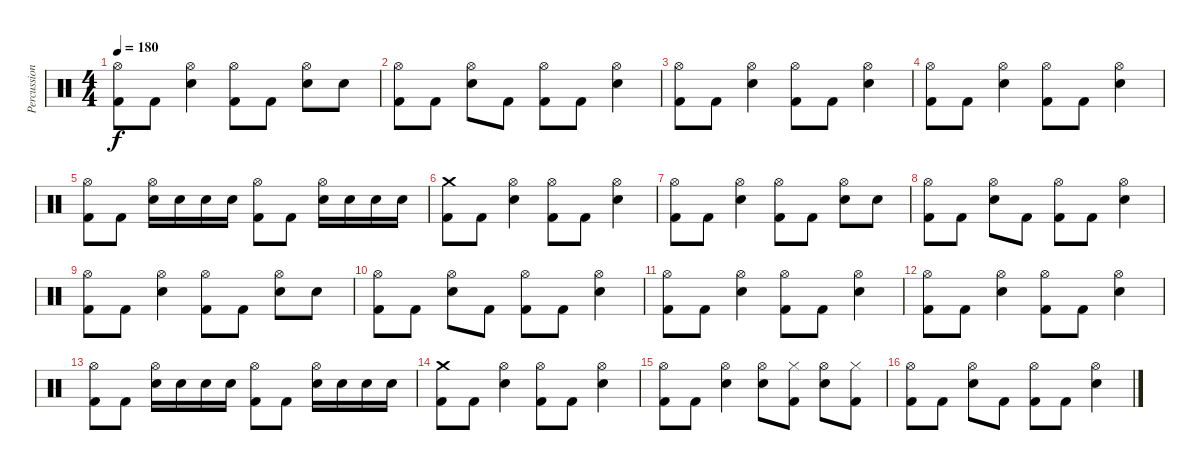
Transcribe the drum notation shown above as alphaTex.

\track ("Percussions" "Percussion") {instrument percussion}
\staff {score}
\articulation defaults
\ts (4 4)
\tempo 180
\clef neutral
\ks c
("Hi-Hat (open)" "Kick (hit) 2").8{dy f} "Kick (hit) 2".8 ("Electric Snare (hit)" "Hi-Hat (open)").4 ("Hi-Hat (open)" "Kick (hit) 2").8 "Kick (hit) 2".8 ("Electric Snare (hit)" "Hi-Hat (open)").8 "Electric Snare (hit)".8 |
("Hi-Hat (open)" "Kick (hit) 2").8 "Kick (hit) 2".8 ("Electric Snare (hit)" "Hi-Hat (open)").8 "Kick (hit) 2".8 ("Hi-Hat (open)" "Kick (hit) 2").8 "Kick (hit) 2".8 ("Electric Snare (hit)" "Hi-Hat (open)").4 |
("Hi-Hat (open)" "Kick (hit) 2").8 "Kick (hit) 2".8 ("Electric Snare (hit)" "Hi-Hat (open)").4 ("Hi-Hat (open)" "Kick (hit) 2").8 "Kick (hit) 2".8 ("Electric Snare (hit)" "Hi-Hat (open)").4 |
("Hi-Hat (open)" "Kick (hit) 2").8 "Kick (hit) 2".8 ("Electric Snare (hit)" "Hi-Hat (open)").4 ("Hi-Hat (open)" "Kick (hit) 2").8 "Kick (hit) 2".8 ("Electric Snare (hit)" "Hi-Hat (open)").4 |
("Hi-Hat (open)" "Kick (hit) 2").8 "Kick (hit) 2".8 ("Electric Snare (hit)" "Hi-Hat (open)").16 "Electric Snare (hit)".16 "Electric Snare (hit)".16 "Electric Snare (hit)".16 ("Hi-Hat (open)" "Kick (hit) 2").8 "Kick (hit) 2".8 ("Electric Snare (hit)" "Hi-Hat (open)").16 "Electric Snare (hit)".16 "Electric Snare (hit)".16 "Electric Snare (hit)".16 |
("Crash medium (hit)" "Kick (hit) 2").8 "Kick (hit) 2".8 ("Electric Snare (hit)" "Hi-Hat (open)").4 ("Hi-Hat (open)" "Kick (hit) 2").8 "Kick (hit) 2".8 ("Electric Snare (hit)" "Hi-Hat (open)").4 |
("Hi-Hat (open)" "Kick (hit) 2").8 "Kick (hit) 2".8 ("Electric Snare (hit)" "Hi-Hat (open)").4 ("Hi-Hat (open)" "Kick (hit) 2").8 "Kick (hit) 2".8 ("Electric Snare (hit)" "Hi-Hat (open)").8 "Electric Snare (hit)".8 |
("Hi-Hat (open)" "Kick (hit) 2").8 "Kick (hit) 2".8 ("Electric Snare (hit)" "Hi-Hat (open)").8 "Kick (hit) 2".8 ("Hi-Hat (open)" "Kick (hit) 2").8 "Kick (hit) 2".8 ("Electric Snare (hit)" "Hi-Hat (open)").4 |
("Hi-Hat (open)" "Kick (hit) 2").8 "Kick (hit) 2".8 ("Electric Snare (hit)" "Hi-Hat (open)").4 ("Hi-Hat (open)" "Kick (hit) 2").8 "Kick (hit) 2".8 ("Electric Snare (hit)" "Hi-Hat (open)").8 "Electric Snare (hit)".8 |
("Hi-Hat (open)" "Kick (hit) 2").8 "Kick (hit) 2".8 ("Electric Snare (hit)" "Hi-Hat (open)").8 "Kick (hit) 2".8 ("Hi-Hat (open)" "Kick (hit) 2").8 "Kick (hit) 2".8 ("Electric Snare (hit)" "Hi-Hat (open)").4 |
("Hi-Hat (open)" "Kick (hit) 2").8 "Kick (hit) 2".8 ("Electric Snare (hit)" "Hi-Hat (open)").4 ("Hi-Hat (open)" "Kick (hit) 2").8 "Kick (hit) 2".8 ("Electric Snare (hit)" "Hi-Hat (open)").4 |
("Hi-Hat (open)" "Kick (hit) 2").8 "Kick (hit) 2".8 ("Electric Snare (hit)" "Hi-Hat (open)").4 ("Hi-Hat (open)" "Kick (hit) 2").8 "Kick (hit) 2".8 ("Electric Snare (hit)" "Hi-Hat (open)").4 |
("Hi-Hat (open)" "Kick (hit) 2").8 "Kick (hit) 2".8 ("Electric Snare (hit)" "Hi-Hat (open)").16 "Electric Snare (hit)".16 "Electric Snare (hit)".16 "Electric Snare (hit)".16 ("Hi-Hat (open)" "Kick (hit) 2").8 "Kick (hit) 2".8 ("Electric Snare (hit)" "Hi-Hat (open)").16 "Electric Snare (hit)".16 "Electric Snare (hit)".16 "Electric Snare (hit)".16 |
("Crash medium (hit)" "Kick (hit) 2").8 "Kick (hit) 2".8 ("Electric Snare (hit)" "Hi-Hat (open)").4 ("Hi-Hat (open)" "Kick (hit) 2").8 "Kick (hit) 2".8 ("Electric Snare (hit)" "Hi-Hat (open)").4 |
("Hi-Hat (open)" "Kick (hit) 2").8 "Kick (hit) 2".8 ("Electric Snare (hit)" "Hi-Hat (open)").4 ("Electric Snare (hit)" "Hi-Hat (open)").8 ("Hi-Hat (closed)" "Kick (hit) 2").8 ("Electric Snare (hit)" "Hi-Hat (open)").8 ("Hi-Hat (closed)" "Kick (hit) 2").8 |
("Hi-Hat (open)" "Kick (hit) 2").8 "Kick (hit) 2".8 ("Electric Snare (hit)" "Hi-Hat (open)").8 "Kick (hit) 2".8 ("Hi-Hat (open)" "Kick (hit) 2").8 "Kick (hit) 2".8 ("Electric Snare (hit)" "Hi-Hat (open)").4
